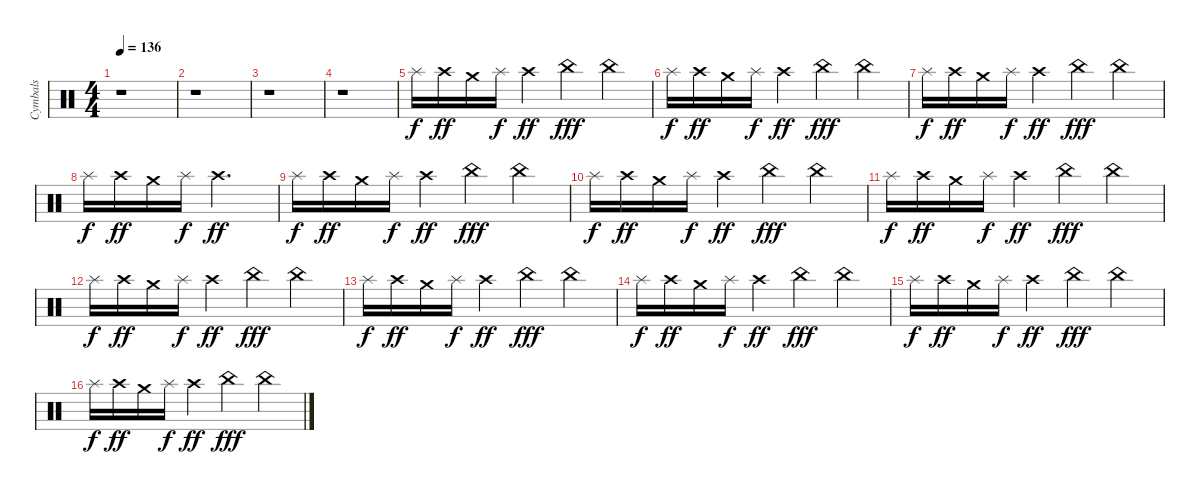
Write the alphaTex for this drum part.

\track ("Cymbals" "Cymbals") {instrument percussion}
\staff {score}
\articulation defaults
\ts (4 4)
\tempo 136
\clef neutral
\ks c
r.1{dy f} |
r.1 |
r.1 |
r.1 |
"Splash (hit)".16 "Crash high (hit)".16{dy ff} "Crash medium (hit)".16 "Splash (hit)".16{dy f} "Crash high (hit)".4{dy ff} "China (hit)".4{dy fff} "China (hit)".4 |
"Splash (hit)".16{dy f} "Crash high (hit)".16{dy ff} "Crash medium (hit)".16 "Splash (hit)".16{dy f} "Crash high (hit)".4{dy ff} "China (hit)".4{dy fff} "China (hit)".4 |
"Splash (hit)".16{dy f} "Crash high (hit)".16{dy ff} "Crash medium (hit)".16 "Splash (hit)".16{dy f} "Crash high (hit)".4{dy ff} "China (hit)".4{dy fff} "China (hit)".4 |
"Splash (hit)".16{dy f} "Crash high (hit)".16{dy ff} "Crash medium (hit)".16 "Splash (hit)".16{dy f} "Crash high (hit)".2{d dy ff} |
"Splash (hit)".16{dy f} "Crash high (hit)".16{dy ff} "Crash medium (hit)".16 "Splash (hit)".16{dy f} "Crash high (hit)".4{dy ff} "China (hit)".4{dy fff} "China (hit)".4 |
"Splash (hit)".16{dy f} "Crash high (hit)".16{dy ff} "Crash medium (hit)".16 "Splash (hit)".16{dy f} "Crash high (hit)".4{dy ff} "China (hit)".4{dy fff} "China (hit)".4 |
"Splash (hit)".16{dy f} "Crash high (hit)".16{dy ff} "Crash medium (hit)".16 "Splash (hit)".16{dy f} "Crash high (hit)".4{dy ff} "China (hit)".4{dy fff} "China (hit)".4 |
"Splash (hit)".16{dy f} "Crash high (hit)".16{dy ff} "Crash medium (hit)".16 "Splash (hit)".16{dy f} "Crash high (hit)".4{dy ff} "China (hit)".4{dy fff} "China (hit)".4 |
"Splash (hit)".16{dy f} "Crash high (hit)".16{dy ff} "Crash medium (hit)".16 "Splash (hit)".16{dy f} "Crash high (hit)".4{dy ff} "China (hit)".4{dy fff} "China (hit)".4 |
"Splash (hit)".16{dy f} "Crash high (hit)".16{dy ff} "Crash medium (hit)".16 "Splash (hit)".16{dy f} "Crash high (hit)".4{dy ff} "China (hit)".4{dy fff} "China (hit)".4 |
"Splash (hit)".16{dy f} "Crash high (hit)".16{dy ff} "Crash medium (hit)".16 "Splash (hit)".16{dy f} "Crash high (hit)".4{dy ff} "China (hit)".4{dy fff} "China (hit)".4 |
"Splash (hit)".16{dy f} "Crash high (hit)".16{dy ff} "Crash medium (hit)".16 "Splash (hit)".16{dy f} "Crash high (hit)".4{dy ff} "China (hit)".4{dy fff} "China (hit)".4
